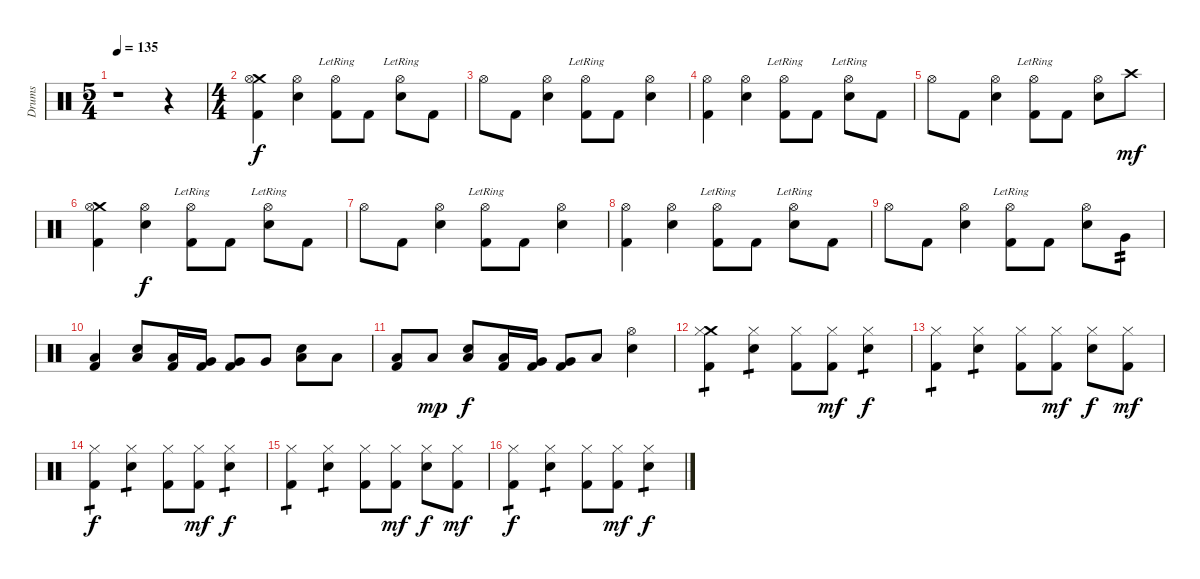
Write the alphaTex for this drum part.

\track ("Drums" "Drums") {instrument percussion}
\staff {score}
\articulation defaults
\ts (5 4)
\tempo 135
\clef neutral
\ks c
r.1{dy f} r.4 |
\ts (4 4)
("Crash medium (hit)" "Hi-Hat (open)" "Kick (hit) 2").4 ("Hi-Hat (open)" "Electric Snare (hit)").4 ("Hi-Hat (open)"{lr} "Kick (hit) 2").8 "Kick (hit) 2".8 ("Hi-Hat (open)"{lr} "Electric Snare (hit)").8 "Kick (hit) 2".8 |
"Hi-Hat (open)".8 "Kick (hit) 2".8 ("Hi-Hat (open)" "Electric Snare (hit)").4 ("Hi-Hat (open)"{lr} "Kick (hit) 2").8 "Kick (hit) 2".8 ("Hi-Hat (open)" "Electric Snare (hit)").4 |
("Hi-Hat (open)" "Kick (hit) 2").4 ("Hi-Hat (open)" "Electric Snare (hit)").4 ("Hi-Hat (open)"{lr} "Kick (hit) 2").8 "Kick (hit) 2".8 ("Hi-Hat (open)"{lr} "Electric Snare (hit)").8 "Kick (hit) 2".8 |
"Hi-Hat (open)".8 "Kick (hit) 2".8 ("Hi-Hat (open)" "Electric Snare (hit)").4 ("Hi-Hat (open)"{lr} "Kick (hit) 2").8 "Kick (hit) 2".8 ("Hi-Hat (open)" "Electric Snare (hit)").8 "Crash high (hit)".8{dy mf} |
("Crash medium (hit)" "Hi-Hat (open)" "Kick (hit) 2").4 ("Hi-Hat (open)" "Electric Snare (hit)").4{dy f} ("Hi-Hat (open)"{lr} "Kick (hit) 2").8 "Kick (hit) 2".8 ("Hi-Hat (open)"{lr} "Electric Snare (hit)").8 "Kick (hit) 2".8 |
"Hi-Hat (open)".8 "Kick (hit) 2".8 ("Hi-Hat (open)" "Electric Snare (hit)").4 ("Hi-Hat (open)"{lr} "Kick (hit) 2").8 "Kick (hit) 2".8 ("Hi-Hat (open)" "Electric Snare (hit)").4 |
("Hi-Hat (open)" "Kick (hit) 2").4 ("Hi-Hat (open)" "Electric Snare (hit)").4 ("Hi-Hat (open)"{lr} "Kick (hit) 2").8 "Kick (hit) 2".8 ("Hi-Hat (open)"{lr} "Electric Snare (hit)").8 "Kick (hit) 2".8 |
"Hi-Hat (open)".8 "Kick (hit) 2".8 ("Hi-Hat (open)" "Electric Snare (hit)").4 ("Hi-Hat (open)"{lr} "Kick (hit) 2").8 "Kick (hit) 2".8 ("Hi-Hat (open)" "Electric Snare (hit)").8 "Very Low Tom (hit)".8{tp 2} |
("Low Tom (hit)" "Kick (hit) 2").4 ("Low Tom (hit)" "Electric Snare (hit)").8 ("Low Tom (hit)" "Kick (hit) 2").16 ("Very Low Tom (hit)" "Kick (hit) 2").16 ("Very Low Tom (hit)" "Kick (hit) 2").8 "Very Low Tom (hit)".8 ("Low Tom (hit)" "Electric Snare (hit)").8 "Low Floor Tom (hit)".8 |
("Low Tom (hit)" "Kick (hit) 2").8 "Low Tom (hit)".8{dy mp} ("Low Tom (hit)" "Electric Snare (hit)").8{dy f} ("Low Tom (hit)" "Kick (hit) 2").16 ("Very Low Tom (hit)" "Kick (hit) 2").16 ("Very Low Tom (hit)" "Kick (hit) 2").8 "Low Floor Tom (hit)".8 ("Hi-Hat (open)" "Electric Snare (hit)").4 |
("Crash medium (hit)" "Hi-Hat (closed)" "Kick (hit) 2").4{tp 1} ("Hi-Hat (closed)" "Electric Snare (hit)").4{tp 1} ("Hi-Hat (closed)" "Kick (hit) 2").8 ("Hi-Hat (closed)" "Kick (hit) 2").8{dy mf} ("Hi-Hat (closed)" "Electric Snare (hit)").4{tp 1 dy f} |
("Hi-Hat (closed)" "Kick (hit) 2").4{tp 1} ("Hi-Hat (closed)" "Electric Snare (hit)").4{tp 1} ("Hi-Hat (closed)" "Kick (hit) 2").8 ("Hi-Hat (closed)" "Kick (hit) 2").8{dy mf} ("Hi-Hat (closed)" "Electric Snare (hit)").8{dy f} ("Hi-Hat (closed)" "Kick (hit) 2").8{dy mf} |
("Hi-Hat (closed)" "Kick (hit) 2").4{tp 1 dy f} ("Hi-Hat (closed)" "Electric Snare (hit)").4{tp 1} ("Hi-Hat (closed)" "Kick (hit) 2").8 ("Hi-Hat (closed)" "Kick (hit) 2").8{dy mf} ("Hi-Hat (closed)" "Electric Snare (hit)").4{tp 1 dy f} |
("Hi-Hat (closed)" "Kick (hit) 2").4{tp 1} ("Hi-Hat (closed)" "Electric Snare (hit)").4{tp 1} ("Hi-Hat (closed)" "Kick (hit) 2").8 ("Hi-Hat (closed)" "Kick (hit) 2").8{dy mf} ("Hi-Hat (closed)" "Electric Snare (hit)").8{dy f} ("Hi-Hat (closed)" "Kick (hit) 2").8{dy mf} |
("Hi-Hat (closed)" "Kick (hit) 2").4{tp 1 dy f} ("Hi-Hat (closed)" "Electric Snare (hit)").4{tp 1} ("Hi-Hat (closed)" "Kick (hit) 2").8 ("Hi-Hat (closed)" "Kick (hit) 2").8{dy mf} ("Hi-Hat (closed)" "Electric Snare (hit)").4{tp 1 dy f}
